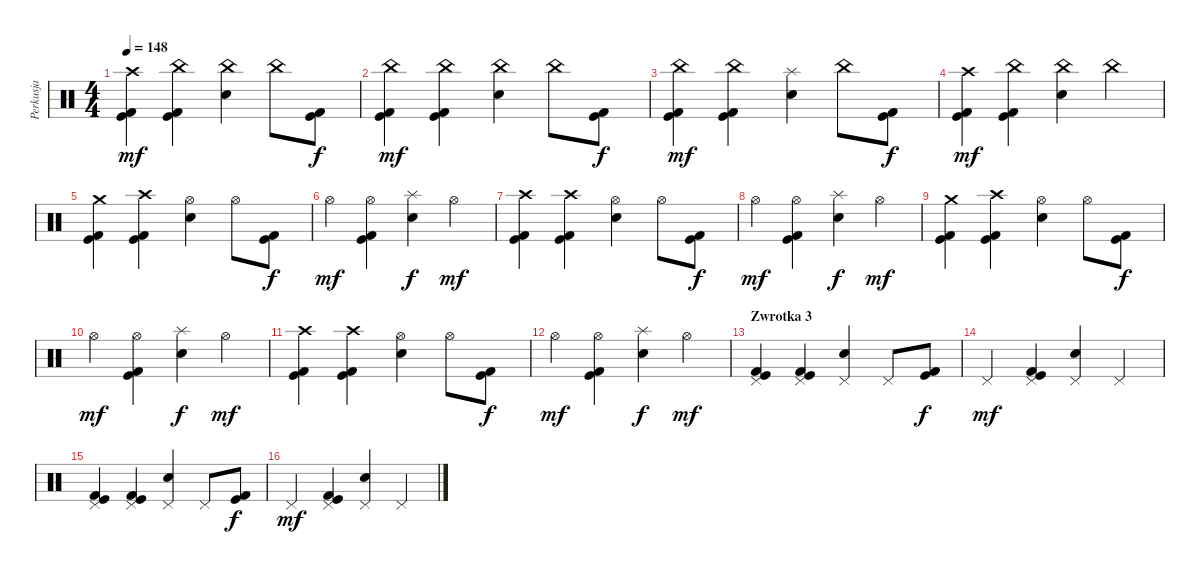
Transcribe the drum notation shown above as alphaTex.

\track ("Perkusja" "Perkusja") {instrument percussion}
\staff {score}
\articulation defaults
\ts (4 4)
\tempo 148
\clef neutral
\ks c
("Kick (hit) 2" "Kick (hit)" "Crash high (hit)").4{dy mf} ("Kick (hit) 2" "Kick (hit)" "China (hit)").4 ("Snare (hit) 2" "China (hit)").4 "China (hit)".8 ("Kick (hit) 2" "Kick (hit)").8{dy f} |
("Kick (hit) 2" "Kick (hit)" "China (hit)").4{dy mf} ("Kick (hit) 2" "Kick (hit)" "China (hit)").4 ("Snare (hit) 2" "China (hit)").4 "China (hit)".8 ("Kick (hit) 2" "Kick (hit)").8{dy f} |
("Kick (hit) 2" "Kick (hit)" "China (hit)").4{dy mf} ("Kick (hit) 2" "Kick (hit)" "China (hit)").4 ("Snare (hit) 2" "Splash (hit)").4 "China (hit)".8 ("Kick (hit) 2" "Kick (hit)").8{dy f} |
("Kick (hit) 2" "Kick (hit)" "Crash high (hit)").4{dy mf} ("Kick (hit) 2" "Kick (hit)" "China (hit)").4 ("Snare (hit) 2" "China (hit)").4 "China (hit)".4 |
("Kick (hit) 2" "Kick (hit)" "Crash medium (hit)").4 ("Kick (hit) 2" "Kick (hit)" "Crash high (hit)").4 ("Snare (hit) 2" "Hi-Hat (open)").4 "Hi-Hat (open)".8 ("Kick (hit) 2" "Kick (hit)").8{dy f} |
"Hi-Hat (open)".4{dy mf} ("Kick (hit)" "Kick (hit) 2" "Hi-Hat (open)").4 ("Snare (hit) 2" "Splash (hit)").4{dy f} "Hi-Hat (open)".4{dy mf} |
("Kick (hit) 2" "Kick (hit)" "Crash high (hit)").4 ("Kick (hit) 2" "Kick (hit)" "Crash high (hit)").4 ("Snare (hit) 2" "Hi-Hat (open)").4 "Hi-Hat (open)".8 ("Kick (hit) 2" "Kick (hit)").8{dy f} |
"Hi-Hat (open)".4{dy mf} ("Kick (hit)" "Kick (hit) 2" "Hi-Hat (open)").4 ("Snare (hit) 2" "Splash (hit)").4{dy f} "Hi-Hat (open)".4{dy mf} |
("Kick (hit) 2" "Kick (hit)" "Crash medium (hit)").4 ("Kick (hit) 2" "Kick (hit)" "Crash high (hit)").4 ("Snare (hit) 2" "Hi-Hat (open)").4 "Hi-Hat (open)".8 ("Kick (hit) 2" "Kick (hit)").8{dy f} |
"Hi-Hat (open)".4{dy mf} ("Kick (hit)" "Kick (hit) 2" "Hi-Hat (open)").4 ("Snare (hit) 2" "Splash (hit)").4{dy f} "Hi-Hat (open)".4{dy mf} |
("Kick (hit) 2" "Kick (hit)" "Crash high (hit)").4 ("Kick (hit) 2" "Kick (hit)" "Crash high (hit)").4 ("Snare (hit) 2" "Hi-Hat (open)").4 "Hi-Hat (open)".8 ("Kick (hit) 2" "Kick (hit)").8{dy f} |
"Hi-Hat (open)".4{dy mf} ("Kick (hit)" "Kick (hit) 2" "Hi-Hat (open)").4 ("Snare (hit) 2" "Splash (hit)").4{dy f} "Hi-Hat (open)".4{dy mf} |
\section ("" "Zwrotka 3")
("Kick (hit) 2" "Kick (hit)" "Pedal Hi-Hat (hit)").4 ("Kick (hit) 2" "Kick (hit)" "Pedal Hi-Hat (hit)").4 ("Snare (hit) 2" "Pedal Hi-Hat (hit)").4 "Pedal Hi-Hat (hit)".8 ("Kick (hit) 2" "Kick (hit)").8{dy f} |
"Pedal Hi-Hat (hit)".4{dy mf} ("Kick (hit)" "Kick (hit) 2" "Pedal Hi-Hat (hit)").4 ("Snare (hit) 2" "Pedal Hi-Hat (hit)").4 "Pedal Hi-Hat (hit)".4 |
("Kick (hit) 2" "Kick (hit)" "Pedal Hi-Hat (hit)").4 ("Kick (hit) 2" "Kick (hit)" "Pedal Hi-Hat (hit)").4 ("Snare (hit) 2" "Pedal Hi-Hat (hit)").4 "Pedal Hi-Hat (hit)".8 ("Kick (hit) 2" "Kick (hit)").8{dy f} |
"Pedal Hi-Hat (hit)".4{dy mf} ("Kick (hit)" "Kick (hit) 2" "Pedal Hi-Hat (hit)").4 ("Snare (hit) 2" "Pedal Hi-Hat (hit)").4 "Pedal Hi-Hat (hit)".4
